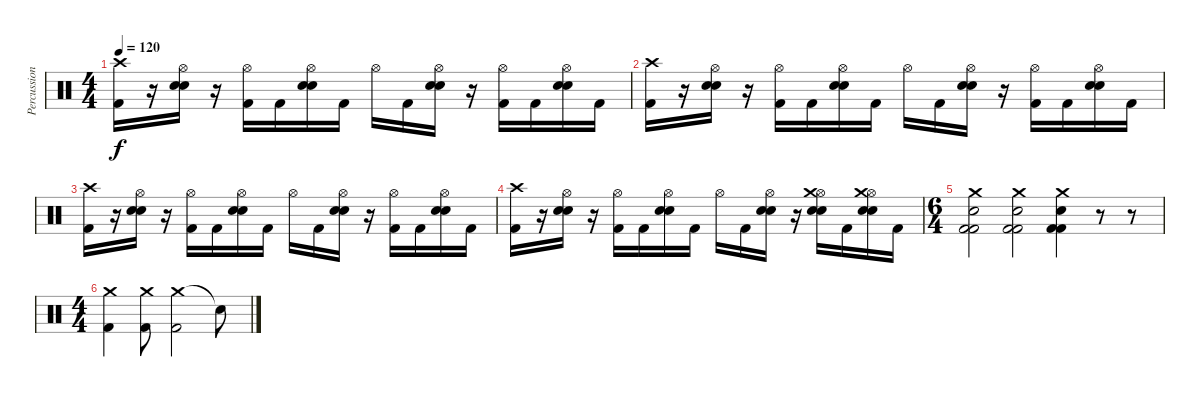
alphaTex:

\track ("Percussion" "Percussion") {instrument percussion}
\staff {score}
\articulation defaults
\ts (4 4)
\tempo 120
\clef neutral
\ks c
("Kick (hit) 2" "Crash high (hit)").16{dy f} r.16 ("Hi-Hat (open)" "Electric Snare (hit)" "Snare (hit) 2").16 r.16 ("Kick (hit) 2" "Hi-Hat (open)").16 "Kick (hit) 2".16 ("Electric Snare (hit)" "Hi-Hat (open)" "Snare (hit) 2").16 "Kick (hit) 2".16 "Hi-Hat (open)".16 "Kick (hit) 2".16 ("Hi-Hat (open)" "Electric Snare (hit)" "Snare (hit) 2").16 r.16 ("Kick (hit) 2" "Hi-Hat (open)").16 "Kick (hit) 2".16 ("Electric Snare (hit)" "Hi-Hat (open)" "Snare (hit) 2").16 "Kick (hit) 2".16 |
("Kick (hit) 2" "Crash high (hit)").16 r.16 ("Hi-Hat (open)" "Electric Snare (hit)" "Snare (hit) 2").16 r.16 ("Kick (hit) 2" "Hi-Hat (open)").16 "Kick (hit) 2".16 ("Electric Snare (hit)" "Hi-Hat (open)" "Snare (hit) 2").16 "Kick (hit) 2".16 "Hi-Hat (open)".16 "Kick (hit) 2".16 ("Hi-Hat (open)" "Electric Snare (hit)" "Snare (hit) 2").16 r.16 ("Kick (hit) 2" "Hi-Hat (open)").16 "Kick (hit) 2".16 ("Electric Snare (hit)" "Hi-Hat (open)" "Snare (hit) 2").16 "Kick (hit) 2".16 |
("Kick (hit) 2" "Crash high (hit)").16 r.16 ("Hi-Hat (open)" "Electric Snare (hit)" "Snare (hit) 2").16 r.16 ("Kick (hit) 2" "Hi-Hat (open)").16 "Kick (hit) 2".16 ("Electric Snare (hit)" "Hi-Hat (open)" "Snare (hit) 2").16 "Kick (hit) 2".16 "Hi-Hat (open)".16 "Kick (hit) 2".16 ("Hi-Hat (open)" "Electric Snare (hit)" "Snare (hit) 2").16 r.16 ("Kick (hit) 2" "Hi-Hat (open)").16 "Kick (hit) 2".16 ("Electric Snare (hit)" "Hi-Hat (open)" "Snare (hit) 2").16 "Kick (hit) 2".16 |
("Kick (hit) 2" "Crash high (hit)").16 r.16 ("Hi-Hat (open)" "Electric Snare (hit)" "Snare (hit) 2").16 r.16 ("Kick (hit) 2" "Hi-Hat (open)").16 "Kick (hit) 2".16 ("Electric Snare (hit)" "Hi-Hat (open)" "Snare (hit) 2").16 "Kick (hit) 2".16 "Hi-Hat (open)".16 "Kick (hit) 2".16 ("Hi-Hat (open)" "Electric Snare (hit)" "Snare (hit) 2").16 r.16 ("Hi-Hat (open)" "Electric Snare (hit)" "Snare (hit) 2" "Crash medium (hit)").16 "Kick (hit) 2".16 ("Hi-Hat (open)" "Electric Snare (hit)" "Snare (hit) 2" "Crash medium (hit)").16 "Kick (hit) 2".16 |
\ts (6 4)
("Crash medium (hit)" "Electric Snare (hit)" "Kick (hit) 2" "Kick (hit) 2").2 ("Crash medium (hit)" "Electric Snare (hit)" "Kick (hit) 2" "Kick (hit) 2").2 ("Crash medium (hit)" "Electric Snare (hit)" "Kick (hit) 2" "Kick (hit) 2").4 r.8 r.8 |
\ts (4 4)
("Crash medium (hit)" "Kick (hit) 2").4 ("Crash medium (hit)" "Kick (hit) 2").8 ("Crash medium (hit)" "Kick (hit) 2").2 "Snare (hit)"{t}.8
